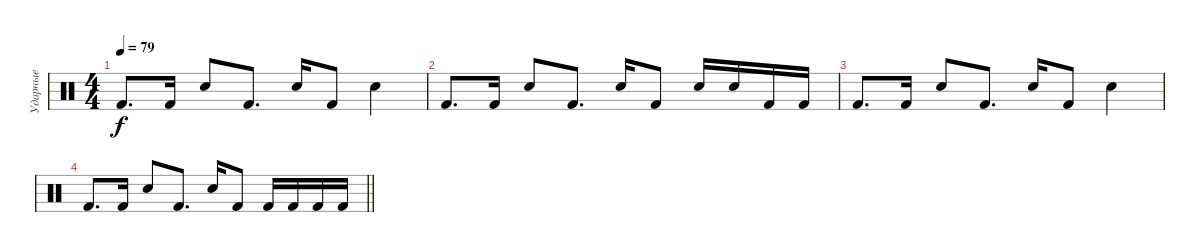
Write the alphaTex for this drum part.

\track ("Ударные" "Ударные") {instrument percussion}
\staff {score}
\articulation defaults
\ts (4 4)
\tempo 79
\clef neutral
\ks c "Kick (hit) 2".8{d dy f} "Kick (hit) 2".16 "Snare (hit) 2".8 "Kick (hit) 2".8{d} "Snare (hit) 2".16 "Kick (hit) 2".8 "Snare (hit) 2".4
|
"Kick (hit) 2".8{d} "Kick (hit) 2".16 "Snare (hit) 2".8 "Kick (hit) 2".8{d} "Snare (hit) 2".16 "Kick (hit) 2".8 "Snare (hit) 2".16 "Snare (hit) 2".16 "Kick (hit) 2".16 "Kick (hit) 2".16 |
"Kick (hit) 2".8{d} "Kick (hit) 2".16 "Snare (hit) 2".8 "Kick (hit) 2".8{d} "Snare (hit) 2".16 "Kick (hit) 2".8 "Snare (hit) 2".4 |
\barLineRight lightlight "Kick (hit) 2".8{d} "Kick (hit) 2".16 "Snare (hit) 2".8 "Kick (hit) 2".8{d} "Snare (hit) 2".16 "Kick (hit) 2".8 "Kick (hit) 2".16 "Kick (hit) 2".16 "Kick (hit) 2".16 "Kick (hit) 2".16
